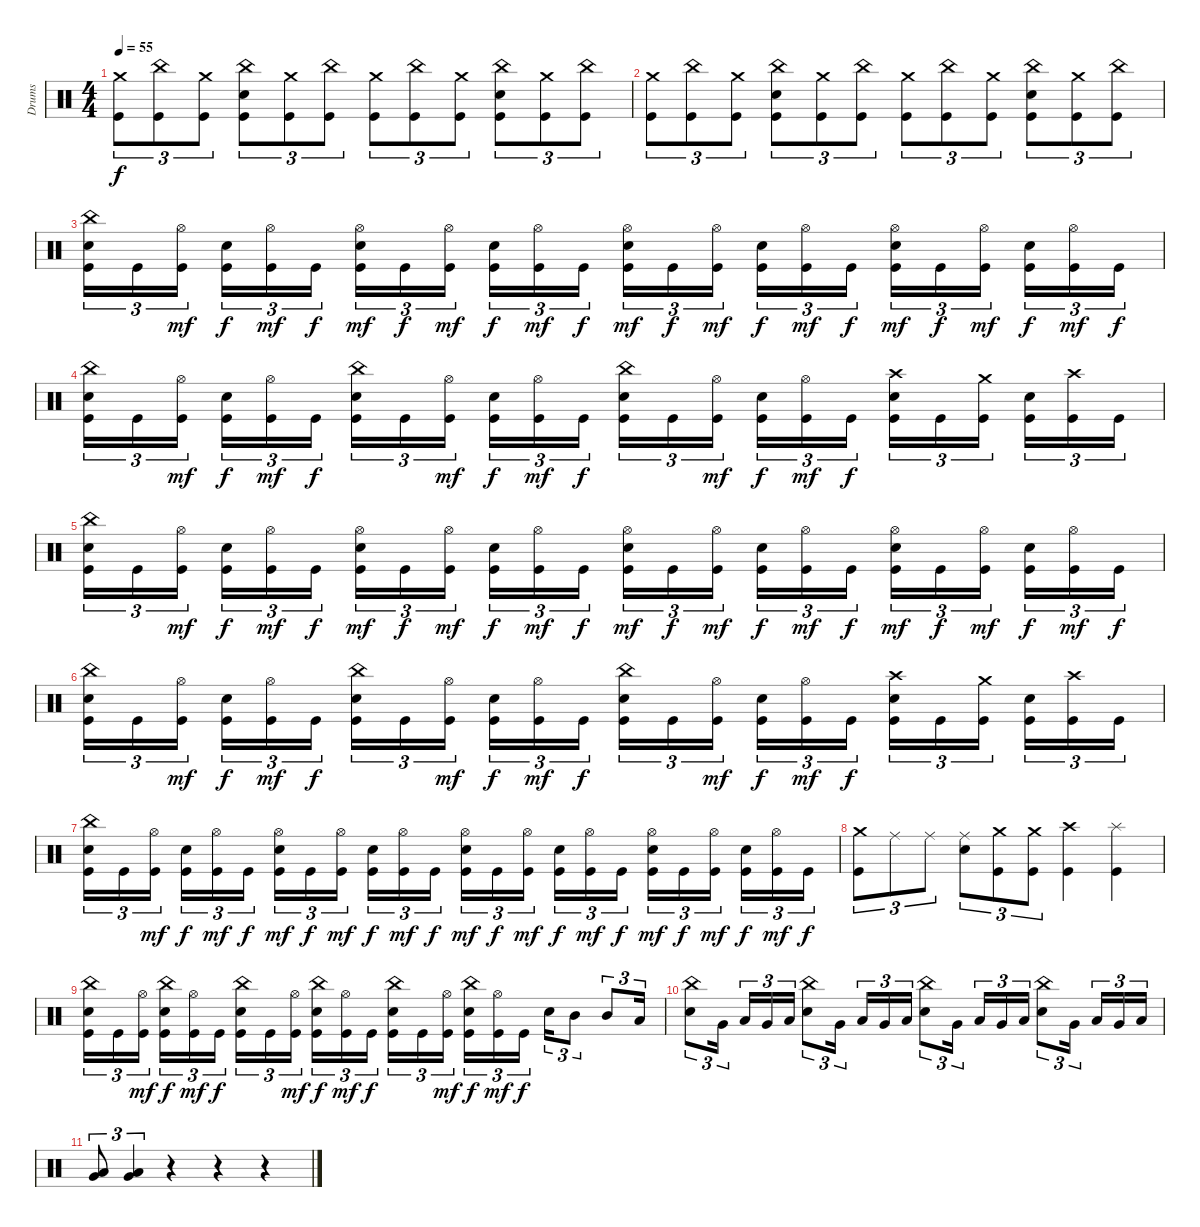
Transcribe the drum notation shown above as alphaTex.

\track ("Drums" "Drums") {instrument percussion}
\staff {score}
\articulation defaults
\ts (4 4)
\tempo 55
\clef neutral
\ks c
("Crash medium (hit)" "Kick (hit)").8{tu (3 2) dy f} ("China (hit)" "Kick (hit)").8{tu (3 2)} ("Crash medium (hit)" "Kick (hit)").8{tu (3 2)} ("China (hit)" "Electric Snare (hit)" "Kick (hit)").8{tu (3 2)} ("Crash medium (hit)" "Kick (hit)").8{tu (3 2)} ("China (hit)" "Kick (hit)").8{tu (3 2)} ("Crash medium (hit)" "Kick (hit)").8{tu (3 2)} ("China (hit)" "Kick (hit)").8{tu (3 2)} ("Crash medium (hit)" "Kick (hit)").8{tu (3 2)} ("China (hit)" "Electric Snare (hit)" "Kick (hit)").8{tu (3 2)} ("Crash medium (hit)" "Kick (hit)").8{tu (3 2)} ("China (hit)" "Kick (hit)").8{tu (3 2)} |
("Crash medium (hit)" "Kick (hit)").8{tu (3 2)} ("China (hit)" "Kick (hit)").8{tu (3 2)} ("Crash medium (hit)" "Kick (hit)").8{tu (3 2)} ("China (hit)" "Electric Snare (hit)" "Kick (hit)").8{tu (3 2)} ("Crash medium (hit)" "Kick (hit)").8{tu (3 2)} ("China (hit)" "Kick (hit)").8{tu (3 2)} ("Crash medium (hit)" "Kick (hit)").8{tu (3 2)} ("China (hit)" "Kick (hit)").8{tu (3 2)} ("Crash medium (hit)" "Kick (hit)").8{tu (3 2)} ("China (hit)" "Electric Snare (hit)" "Kick (hit)").8{tu (3 2)} ("Crash medium (hit)" "Kick (hit)").8{tu (3 2)} ("China (hit)" "Kick (hit)").8{tu (3 2)} |
("China (hit)" "Electric Snare (hit)" "Kick (hit)").16{tu (3 2)} "Kick (hit)".16{tu (3 2)} ("Hi-Hat (open)" "Kick (hit)").16{tu (3 2) dy mf} ("Electric Snare (hit)" "Kick (hit)").16{tu (3 2) dy f} ("Hi-Hat (open)" "Kick (hit)").16{tu (3 2) dy mf} "Kick (hit)".16{tu (3 2) dy f} ("Hi-Hat (open)" "Electric Snare (hit)" "Kick (hit)").16{tu (3 2) dy mf} "Kick (hit)".16{tu (3 2) dy f} ("Hi-Hat (open)" "Kick (hit)").16{tu (3 2) dy mf} ("Electric Snare (hit)" "Kick (hit)").16{tu (3 2) dy f} ("Hi-Hat (open)" "Kick (hit)").16{tu (3 2) dy mf} "Kick (hit)".16{tu (3 2) dy f} ("Hi-Hat (open)" "Electric Snare (hit)" "Kick (hit)").16{tu (3 2) dy mf} "Kick (hit)".16{tu (3 2) dy f} ("Hi-Hat (open)" "Kick (hit)").16{tu (3 2) dy mf} ("Electric Snare (hit)" "Kick (hit)").16{tu (3 2) dy f} ("Hi-Hat (open)" "Kick (hit)").16{tu (3 2) dy mf} "Kick (hit)".16{tu (3 2) dy f} ("Hi-Hat (open)" "Electric Snare (hit)" "Kick (hit)").16{tu (3 2) dy mf} "Kick (hit)".16{tu (3 2) dy f} ("Hi-Hat (open)" "Kick (hit)").16{tu (3 2) dy mf} ("Electric Snare (hit)" "Kick (hit)").16{tu (3 2) dy f} ("Hi-Hat (open)" "Kick (hit)").16{tu (3 2) dy mf} "Kick (hit)".16{tu (3 2) dy f} |
("China (hit)" "Electric Snare (hit)" "Kick (hit)").16{tu (3 2)} "Kick (hit)".16{tu (3 2)} ("Hi-Hat (open)" "Kick (hit)").16{tu (3 2) dy mf} ("Electric Snare (hit)" "Kick (hit)").16{tu (3 2) dy f} ("Hi-Hat (open)" "Kick (hit)").16{tu (3 2) dy mf} "Kick (hit)".16{tu (3 2) dy f} ("China (hit)" "Electric Snare (hit)" "Kick (hit)").16{tu (3 2)} "Kick (hit)".16{tu (3 2)} ("Hi-Hat (open)" "Kick (hit)").16{tu (3 2) dy mf} ("Electric Snare (hit)" "Kick (hit)").16{tu (3 2) dy f} ("Hi-Hat (open)" "Kick (hit)").16{tu (3 2) dy mf} "Kick (hit)".16{tu (3 2) dy f} ("China (hit)" "Electric Snare (hit)" "Kick (hit)").16{tu (3 2)} "Kick (hit)".16{tu (3 2)} ("Hi-Hat (open)" "Kick (hit)").16{tu (3 2) dy mf} ("Electric Snare (hit)" "Kick (hit)").16{tu (3 2) dy f} ("Hi-Hat (open)" "Kick (hit)").16{tu (3 2) dy mf} "Kick (hit)".16{tu (3 2) dy f} ("Crash high (hit)" "Electric Snare (hit)" "Kick (hit)").16{tu (3 2)} "Kick (hit)".16{tu (3 2)} ("Crash medium (hit)" "Kick (hit)").16{tu (3 2)} ("Electric Snare (hit)" "Kick (hit)").16{tu (3 2)} ("Crash high (hit)" "Kick (hit)").16{tu (3 2)} "Kick (hit)".16{tu (3 2)} |
("China (hit)" "Electric Snare (hit)" "Kick (hit)").16{tu (3 2)} "Kick (hit)".16{tu (3 2)} ("Hi-Hat (open)" "Kick (hit)").16{tu (3 2) dy mf} ("Electric Snare (hit)" "Kick (hit)").16{tu (3 2) dy f} ("Hi-Hat (open)" "Kick (hit)").16{tu (3 2) dy mf} "Kick (hit)".16{tu (3 2) dy f} ("Hi-Hat (open)" "Electric Snare (hit)" "Kick (hit)").16{tu (3 2) dy mf} "Kick (hit)".16{tu (3 2) dy f} ("Hi-Hat (open)" "Kick (hit)").16{tu (3 2) dy mf} ("Electric Snare (hit)" "Kick (hit)").16{tu (3 2) dy f} ("Hi-Hat (open)" "Kick (hit)").16{tu (3 2) dy mf} "Kick (hit)".16{tu (3 2) dy f} ("Hi-Hat (open)" "Electric Snare (hit)" "Kick (hit)").16{tu (3 2) dy mf} "Kick (hit)".16{tu (3 2) dy f} ("Hi-Hat (open)" "Kick (hit)").16{tu (3 2) dy mf} ("Electric Snare (hit)" "Kick (hit)").16{tu (3 2) dy f} ("Hi-Hat (open)" "Kick (hit)").16{tu (3 2) dy mf} "Kick (hit)".16{tu (3 2) dy f} ("Hi-Hat (open)" "Electric Snare (hit)" "Kick (hit)").16{tu (3 2) dy mf} "Kick (hit)".16{tu (3 2) dy f} ("Hi-Hat (open)" "Kick (hit)").16{tu (3 2) dy mf} ("Electric Snare (hit)" "Kick (hit)").16{tu (3 2) dy f} ("Hi-Hat (open)" "Kick (hit)").16{tu (3 2) dy mf} "Kick (hit)".16{tu (3 2) dy f} |
("China (hit)" "Electric Snare (hit)" "Kick (hit)").16{tu (3 2)} "Kick (hit)".16{tu (3 2)} ("Hi-Hat (open)" "Kick (hit)").16{tu (3 2) dy mf} ("Electric Snare (hit)" "Kick (hit)").16{tu (3 2) dy f} ("Hi-Hat (open)" "Kick (hit)").16{tu (3 2) dy mf} "Kick (hit)".16{tu (3 2) dy f} ("China (hit)" "Electric Snare (hit)" "Kick (hit)").16{tu (3 2)} "Kick (hit)".16{tu (3 2)} ("Hi-Hat (open)" "Kick (hit)").16{tu (3 2) dy mf} ("Electric Snare (hit)" "Kick (hit)").16{tu (3 2) dy f} ("Hi-Hat (open)" "Kick (hit)").16{tu (3 2) dy mf} "Kick (hit)".16{tu (3 2) dy f} ("China (hit)" "Electric Snare (hit)" "Kick (hit)").16{tu (3 2)} "Kick (hit)".16{tu (3 2)} ("Hi-Hat (open)" "Kick (hit)").16{tu (3 2) dy mf} ("Electric Snare (hit)" "Kick (hit)").16{tu (3 2) dy f} ("Hi-Hat (open)" "Kick (hit)").16{tu (3 2) dy mf} "Kick (hit)".16{tu (3 2) dy f} ("Crash high (hit)" "Electric Snare (hit)" "Kick (hit)").16{tu (3 2)} "Kick (hit)".16{tu (3 2)} ("Crash medium (hit)" "Kick (hit)").16{tu (3 2)} ("Electric Snare (hit)" "Kick (hit)").16{tu (3 2)} ("Crash high (hit)" "Kick (hit)").16{tu (3 2)} "Kick (hit)".16{tu (3 2)} |
("China (hit)" "Electric Snare (hit)" "Kick (hit)").16{tu (3 2)} "Kick (hit)".16{tu (3 2)} ("Hi-Hat (open)" "Kick (hit)").16{tu (3 2) dy mf} ("Electric Snare (hit)" "Kick (hit)").16{tu (3 2) dy f} ("Hi-Hat (open)" "Kick (hit)").16{tu (3 2) dy mf} "Kick (hit)".16{tu (3 2) dy f} ("Hi-Hat (open)" "Electric Snare (hit)" "Kick (hit)").16{tu (3 2) dy mf} "Kick (hit)".16{tu (3 2) dy f} ("Hi-Hat (open)" "Kick (hit)").16{tu (3 2) dy mf} ("Electric Snare (hit)" "Kick (hit)").16{tu (3 2) dy f} ("Hi-Hat (open)" "Kick (hit)").16{tu (3 2) dy mf} "Kick (hit)".16{tu (3 2) dy f} ("Hi-Hat (open)" "Electric Snare (hit)" "Kick (hit)").16{tu (3 2) dy mf} "Kick (hit)".16{tu (3 2) dy f} ("Hi-Hat (open)" "Kick (hit)").16{tu (3 2) dy mf} ("Electric Snare (hit)" "Kick (hit)").16{tu (3 2) dy f} ("Hi-Hat (open)" "Kick (hit)").16{tu (3 2) dy mf} "Kick (hit)".16{tu (3 2) dy f} ("Hi-Hat (open)" "Electric Snare (hit)" "Kick (hit)").16{tu (3 2) dy mf} "Kick (hit)".16{tu (3 2) dy f} ("Hi-Hat (open)" "Kick (hit)").16{tu (3 2) dy mf} ("Electric Snare (hit)" "Kick (hit)").16{tu (3 2) dy f} ("Hi-Hat (open)" "Kick (hit)").16{tu (3 2) dy mf} "Kick (hit)".16{tu (3 2) dy f} |
("Crash medium (hit)" "Kick (hit)").8{tu (3 2)} "Ride (middle)".8{tu (3 2)} "Ride (middle)".8{tu (3 2)} ("Ride (middle)" "Electric Snare (hit)").8{tu (3 2)} ("Crash medium (hit)" "Kick (hit)").8{tu (3 2)} ("Crash medium (hit)" "Kick (hit)").8{tu (3 2)} ("Crash high (hit)" "Kick (hit)").4 ("Splash (hit)" "Kick (hit)").4 |
("China (hit)" "Electric Snare (hit)" "Kick (hit)").16{tu (3 2)} "Kick (hit)".16{tu (3 2)} ("Hi-Hat (open)" "Kick (hit)").16{tu (3 2) dy mf} ("China (hit)" "Electric Snare (hit)" "Kick (hit)").16{tu (3 2) dy f} ("Hi-Hat (open)" "Kick (hit)").16{tu (3 2) dy mf} "Kick (hit)".16{tu (3 2) dy f} ("China (hit)" "Electric Snare (hit)" "Kick (hit)").16{tu (3 2)} "Kick (hit)".16{tu (3 2)} ("Hi-Hat (open)" "Kick (hit)").16{tu (3 2) dy mf} ("China (hit)" "Electric Snare (hit)" "Kick (hit)").16{tu (3 2) dy f} ("Hi-Hat (open)" "Kick (hit)").16{tu (3 2) dy mf} "Kick (hit)".16{tu (3 2) dy f} ("China (hit)" "Electric Snare (hit)" "Kick (hit)").16{tu (3 2)} "Kick (hit)".16{tu (3 2)} ("Hi-Hat (open)" "Kick (hit)").16{tu (3 2) dy mf} ("China (hit)" "Electric Snare (hit)" "Kick (hit)").16{tu (3 2) dy f} ("Hi-Hat (open)" "Kick (hit)").16{tu (3 2) dy mf} "Kick (hit)".16{tu (3 2) dy f} "Electric Snare (hit)".16{tu (3 2)} "Mid Tom (hit)".8{tu (3 2)} "Mid Tom (hit)".8{tu (3 2)} "Low Tom (hit)".16{tu (3 2)} |
("China (hit)" "Electric Snare (hit)").8{tu (3 2)} "Very Low Tom (hit)".16{tu (3 2)} "Low Tom (hit)".16{tu (3 2)} "Very Low Tom (hit)".16{tu (3 2)} "Low Tom (hit)".16{tu (3 2)} ("China (hit)" "Electric Snare (hit)").8{tu (3 2)} "Very Low Tom (hit)".16{tu (3 2)} "Low Tom (hit)".16{tu (3 2)} "Very Low Tom (hit)".16{tu (3 2)} "Low Tom (hit)".16{tu (3 2)} ("China (hit)" "Electric Snare (hit)").8{tu (3 2)} "Very Low Tom (hit)".16{tu (3 2)} "Low Tom (hit)".16{tu (3 2)} "Very Low Tom (hit)".16{tu (3 2)} "Low Tom (hit)".16{tu (3 2)} ("China (hit)" "Electric Snare (hit)").8{tu (3 2)} "Very Low Tom (hit)".16{tu (3 2)} "Low Tom (hit)".16{tu (3 2)} "Very Low Tom (hit)".16{tu (3 2)} "Low Tom (hit)".16{tu (3 2)} |
("Low Tom (hit)" "Very Low Tom (hit)").8{tu (3 2)} ("Low Tom (hit)" "Very Low Tom (hit)").4{tu (3 2)} r.4 r.4 r.4
